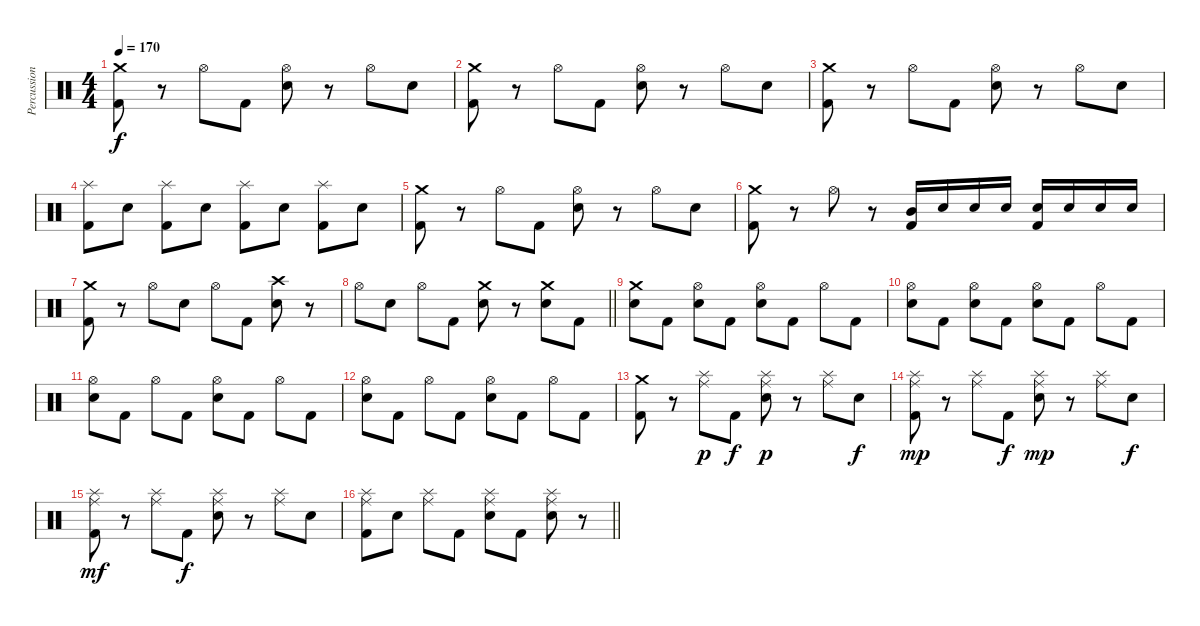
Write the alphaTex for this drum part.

\track ("Percussion" "Percussion") {instrument percussion}
\staff {score}
\articulation defaults
\ts (4 4)
\section ("" "")
\tempo 170
\clef neutral
\ks c
("Crash medium (hit)" "Kick (hit) 2").8{dy f} r.8 "Hi-Hat (open)".8 "Kick (hit) 2".8 ("Hi-Hat (open)" "Electric Snare (hit)").8 r.8 "Hi-Hat (open)".8 "Electric Snare (hit)".8 |
("Crash medium (hit)" "Kick (hit) 2").8 r.8 "Hi-Hat (open)".8 "Kick (hit) 2".8 ("Hi-Hat (open)" "Electric Snare (hit)").8 r.8 "Hi-Hat (open)".8 "Electric Snare (hit)".8 |
("Crash medium (hit)" "Kick (hit) 2").8 r.8 "Hi-Hat (open)".8 "Kick (hit) 2".8 ("Hi-Hat (open)" "Electric Snare (hit)").8 r.8 "Hi-Hat (open)".8 "Electric Snare (hit)".8 |
("Splash (hit)" "Kick (hit) 2").8 "Electric Snare (hit)".8 ("Splash (hit)" "Kick (hit) 2").8 "Electric Snare (hit)".8 ("Splash (hit)" "Kick (hit) 2").8 "Electric Snare (hit)".8 ("Splash (hit)" "Kick (hit) 2").8 "Electric Snare (hit)".8 |
("Crash medium (hit)" "Kick (hit) 2").8 r.8 "Hi-Hat (open)".8 "Kick (hit) 2".8 ("Hi-Hat (open)" "Electric Snare (hit)").8 r.8 "Hi-Hat (open)".8 "Electric Snare (hit)".8 |
("Crash medium (hit)" "Kick (hit) 2").8 r.8 "Hi-Hat (open)".8 r.8 ("Mid Tom (hit)" "Kick (hit) 2").16 "Electric Snare (hit)".16 "Electric Snare (hit)".16 "Electric Snare (hit)".16 ("Electric Snare (hit)" "Kick (hit) 2").16 "Electric Snare (hit)".16 "Electric Snare (hit)".16 "Electric Snare (hit)".16 |
("Crash medium (hit)" "Kick (hit) 2").8 r.8 "Hi-Hat (open)".8 "Electric Snare (hit)".8 "Hi-Hat (open)".8 "Kick (hit) 2".8 ("Crash high (hit)" "Electric Snare (hit)").8 r.8 |
\barLineRight lightlight "Hi-Hat (open)".8 "Electric Snare (hit)".8 "Hi-Hat (open)".8 "Kick (hit) 2".8
("Crash medium (hit)" "Electric Snare (hit)").8 r.8 ("Crash medium (hit)" "Electric Snare (hit)").8 "Kick (hit) 2".8 |
\section ("" "")
("Crash medium (hit)" "Electric Snare (hit)").8 "Kick (hit) 2".8 ("Hi-Hat (open)" "Electric Snare (hit)").8 "Kick (hit) 2".8 ("Hi-Hat (open)" "Electric Snare (hit)").8 "Kick (hit) 2".8 "Hi-Hat (open)".8 "Kick (hit) 2".8 |
("Hi-Hat (open)" "Electric Snare (hit)").8 "Kick (hit) 2".8 ("Hi-Hat (open)" "Electric Snare (hit)").8 "Kick (hit) 2".8 ("Hi-Hat (open)" "Electric Snare (hit)").8 "Kick (hit) 2".8 "Hi-Hat (open)".8 "Kick (hit) 2".8 |
("Hi-Hat (open)" "Electric Snare (hit)").8 "Kick (hit) 2".8 "Hi-Hat (open)".8 "Kick (hit) 2".8 ("Hi-Hat (open)" "Electric Snare (hit)").8 "Kick (hit) 2".8 "Hi-Hat (open)".8 "Kick (hit) 2".8 |
("Hi-Hat (open)" "Electric Snare (hit)").8 "Kick (hit) 2".8 "Hi-Hat (open)".8 "Kick (hit) 2".8 ("Hi-Hat (open)" "Electric Snare (hit)").8 "Kick (hit) 2".8 "Hi-Hat (open)".8 "Kick (hit) 2".8 |
("Crash medium (hit)" "Kick (hit) 2").8 r.8 ("Splash (hit)" "Ride (middle)").8{dy p} "Kick (hit) 2".8{dy f} ("Splash (hit)" "Ride (middle)" "Electric Snare (hit)").8{dy p} r.8 ("Splash (hit)" "Ride (middle)").8 "Electric Snare (hit)".8{dy f} |
("Splash (hit)" "Ride (middle)" "Kick (hit) 2").8{dy mp} r.8 ("Splash (hit)" "Ride (middle)").8 "Kick (hit) 2".8{dy f} ("Splash (hit)" "Ride (middle)" "Electric Snare (hit)").8{dy mp} r.8 ("Splash (hit)" "Ride (middle)").8 "Electric Snare (hit)".8{dy f} |
("Splash (hit)" "Ride (middle)" "Kick (hit) 2").8{dy mf} r.8 ("Splash (hit)" "Ride (middle)").8 "Kick (hit) 2".8{dy f} ("Splash (hit)" "Ride (middle)" "Electric Snare (hit)").8 r.8 ("Splash (hit)" "Ride (middle)").8 "Electric Snare (hit)".8 |
\barLineRight lightlight
("Splash (hit)" "Ride (middle)" "Kick (hit) 2").8 "Electric Snare (hit)".8 ("Splash (hit)" "Ride (middle)").8 "Kick (hit) 2".8 ("Splash (hit)" "Ride (middle)" "Electric Snare (hit)").8 "Kick (hit) 2".8 ("Splash (hit)" "Ride (middle)" "Electric Snare (hit)").8 r.8
